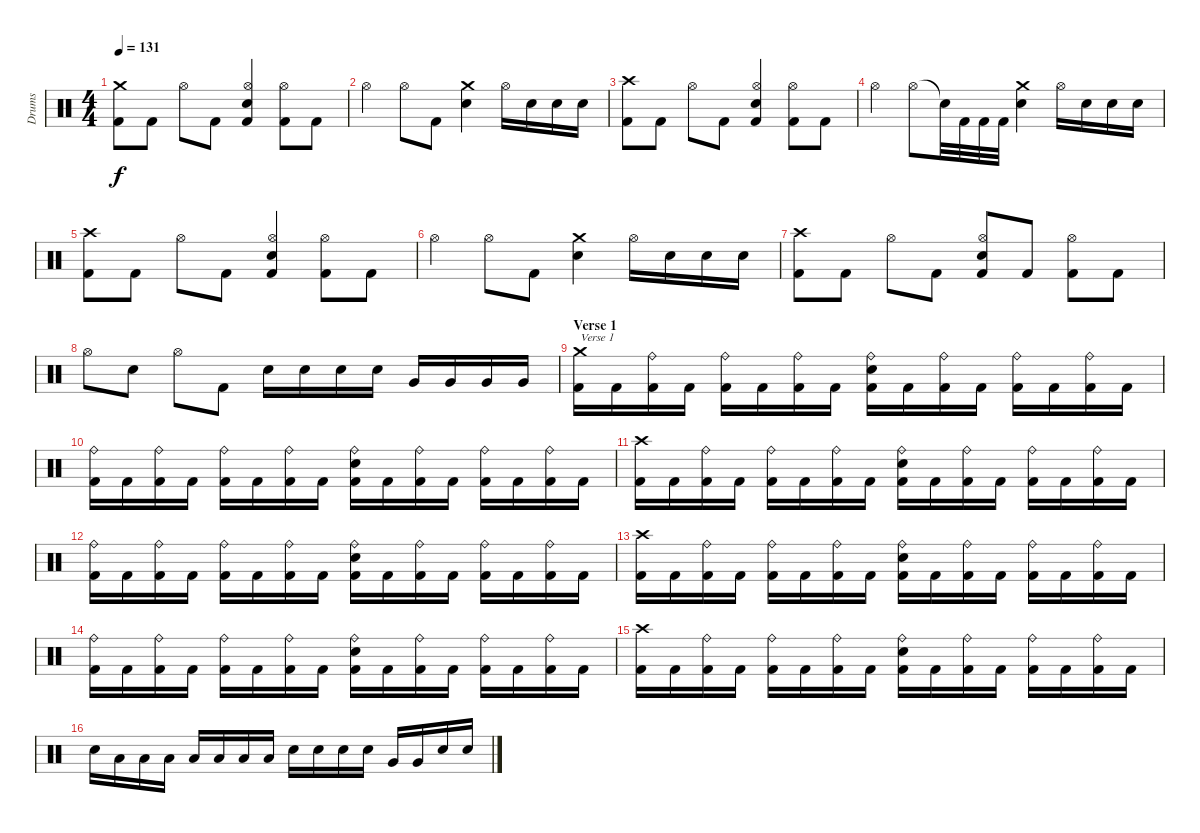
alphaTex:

\track ("Drums" "Drums") {instrument percussion}
\staff {score}
\articulation defaults
\ts (4 4)
\tempo 131
\clef neutral
\ks c
("Crash medium (hit)" "Kick (hit) 2").8{dy f} "Kick (hit) 2".8 "Hi-Hat (open)".8 "Kick (hit) 2".8 ("Hi-Hat (open)" "Electric Snare (hit)" "Kick (hit) 2").4 ("Hi-Hat (open)" "Kick (hit) 2").8 "Kick (hit) 2".8 |
"Hi-Hat (open)".4 "Hi-Hat (open)".8 "Kick (hit) 2".8 ("Crash medium (hit)" "Electric Snare (hit)").4 "Hi-Hat (open)".16 "Electric Snare (hit)".16 "Electric Snare (hit)".16 "Electric Snare (hit)".16 |
("Crash high (hit)" "Kick (hit) 2").8 "Kick (hit) 2".8 "Hi-Hat (open)".8 "Kick (hit) 2".8 ("Hi-Hat (open)" "Electric Snare (hit)" "Kick (hit) 2").4 ("Hi-Hat (open)" "Kick (hit) 2").8 "Kick (hit) 2".8 |
"Hi-Hat (open)".4 "Hi-Hat (open)".8 "Snare (hit)"{t}.32 "Kick (hit) 2".32 "Kick (hit) 2".32 "Kick (hit) 2".32 ("Crash medium (hit)" "Electric Snare (hit)").4 "Hi-Hat (open)".16 "Electric Snare (hit)".16 "Electric Snare (hit)".16 "Electric Snare (hit)".16 |
("Crash high (hit)" "Kick (hit) 2").8 "Kick (hit) 2".8 "Hi-Hat (open)".8 "Kick (hit) 2".8 ("Hi-Hat (open)" "Electric Snare (hit)" "Kick (hit) 2").4 ("Hi-Hat (open)" "Kick (hit) 2").8 "Kick (hit) 2".8 |
"Hi-Hat (open)".4 "Hi-Hat (open)".8 "Kick (hit) 2".8 ("Crash medium (hit)" "Electric Snare (hit)").4 "Hi-Hat (open)".16 "Electric Snare (hit)".16 "Electric Snare (hit)".16 "Electric Snare (hit)".16 |
("Crash high (hit)" "Kick (hit) 2").8 "Kick (hit) 2".8 "Hi-Hat (open)".8 "Kick (hit) 2".8 ("Hi-Hat (open)" "Electric Snare (hit)" "Kick (hit) 2").8 "Kick (hit) 2".8 ("Hi-Hat (open)" "Kick (hit) 2").8 "Kick (hit) 2".8 |
"Hi-Hat (open)".8 "Electric Snare (hit)".8 "Hi-Hat (open)".8 "Kick (hit) 2".8 "Electric Snare (hit)".16 "Electric Snare (hit)".16 "Electric Snare (hit)".16 "Electric Snare (hit)".16 "Very Low Tom (hit)".16 "Very Low Tom (hit)".16 "Very Low Tom (hit)".16 "Very Low Tom (hit)".16 |
\section ("" "Verse 1")
("Crash medium (hit)" "Kick (hit) 2").16{txt "Verse 1"} "Kick (hit) 2".16 ("Ride (bell)" "Kick (hit) 2").16 "Kick (hit) 2".16 ("Ride (bell)" "Kick (hit) 2").16 "Kick (hit) 2".16 ("Ride (bell)" "Kick (hit) 2").16 "Kick (hit) 2".16 ("Ride (bell)" "Electric Snare (hit)" "Kick (hit) 2").16 "Kick (hit) 2".16 ("Ride (bell)" "Kick (hit) 2").16 "Kick (hit) 2".16 ("Ride (bell)" "Kick (hit) 2").16 "Kick (hit) 2".16 ("Ride (bell)" "Kick (hit) 2").16 "Kick (hit) 2".16 |
("Ride (bell)" "Kick (hit) 2").16 "Kick (hit) 2".16 ("Ride (bell)" "Kick (hit) 2").16 "Kick (hit) 2".16 ("Ride (bell)" "Kick (hit) 2").16 "Kick (hit) 2".16 ("Ride (bell)" "Kick (hit) 2").16 "Kick (hit) 2".16 ("Ride (bell)" "Electric Snare (hit)" "Kick (hit) 2").16 "Kick (hit) 2".16 ("Ride (bell)" "Kick (hit) 2").16 "Kick (hit) 2".16 ("Ride (bell)" "Kick (hit) 2").16 "Kick (hit) 2".16 ("Ride (bell)" "Kick (hit) 2").16 "Kick (hit) 2".16 |
("Crash high (hit)" "Kick (hit) 2").16 "Kick (hit) 2".16 ("Ride (bell)" "Kick (hit) 2").16 "Kick (hit) 2".16 ("Ride (bell)" "Kick (hit) 2").16 "Kick (hit) 2".16 ("Ride (bell)" "Kick (hit) 2").16 "Kick (hit) 2".16 ("Ride (bell)" "Electric Snare (hit)" "Kick (hit) 2").16 "Kick (hit) 2".16 ("Ride (bell)" "Kick (hit) 2").16 "Kick (hit) 2".16 ("Ride (bell)" "Kick (hit) 2").16 "Kick (hit) 2".16 ("Ride (bell)" "Kick (hit) 2").16 "Kick (hit) 2".16 |
("Ride (bell)" "Kick (hit) 2").16 "Kick (hit) 2".16 ("Ride (bell)" "Kick (hit) 2").16 "Kick (hit) 2".16 ("Ride (bell)" "Kick (hit) 2").16 "Kick (hit) 2".16 ("Ride (bell)" "Kick (hit) 2").16 "Kick (hit) 2".16 ("Ride (bell)" "Electric Snare (hit)" "Kick (hit) 2").16 "Kick (hit) 2".16 ("Ride (bell)" "Kick (hit) 2").16 "Kick (hit) 2".16 ("Ride (bell)" "Kick (hit) 2").16 "Kick (hit) 2".16 ("Ride (bell)" "Kick (hit) 2").16 "Kick (hit) 2".16 |
("Crash high (hit)" "Kick (hit) 2").16 "Kick (hit) 2".16 ("Ride (bell)" "Kick (hit) 2").16 "Kick (hit) 2".16 ("Ride (bell)" "Kick (hit) 2").16 "Kick (hit) 2".16 ("Ride (bell)" "Kick (hit) 2").16 "Kick (hit) 2".16 ("Ride (bell)" "Electric Snare (hit)" "Kick (hit) 2").16 "Kick (hit) 2".16 ("Ride (bell)" "Kick (hit) 2").16 "Kick (hit) 2".16 ("Ride (bell)" "Kick (hit) 2").16 "Kick (hit) 2".16 ("Ride (bell)" "Kick (hit) 2").16 "Kick (hit) 2".16 |
("Ride (bell)" "Kick (hit) 2").16 "Kick (hit) 2".16 ("Ride (bell)" "Kick (hit) 2").16 "Kick (hit) 2".16 ("Ride (bell)" "Kick (hit) 2").16 "Kick (hit) 2".16 ("Ride (bell)" "Kick (hit) 2").16 "Kick (hit) 2".16 ("Ride (bell)" "Electric Snare (hit)" "Kick (hit) 2").16 "Kick (hit) 2".16 ("Ride (bell)" "Kick (hit) 2").16 "Kick (hit) 2".16 ("Ride (bell)" "Kick (hit) 2").16 "Kick (hit) 2".16 ("Ride (bell)" "Kick (hit) 2").16 "Kick (hit) 2".16 |
("Crash high (hit)" "Kick (hit) 2").16 "Kick (hit) 2".16 ("Ride (bell)" "Kick (hit) 2").16 "Kick (hit) 2".16 ("Ride (bell)" "Kick (hit) 2").16 "Kick (hit) 2".16 ("Ride (bell)" "Kick (hit) 2").16 "Kick (hit) 2".16 ("Ride (bell)" "Electric Snare (hit)" "Kick (hit) 2").16 "Kick (hit) 2".16 ("Ride (bell)" "Kick (hit) 2").16 "Kick (hit) 2".16 ("Ride (bell)" "Kick (hit) 2").16 "Kick (hit) 2".16 ("Ride (bell)" "Kick (hit) 2").16 "Kick (hit) 2".16 |
"Electric Snare (hit)".16 "Low Floor Tom (hit)".16 "Low Floor Tom (hit)".16 "Low Floor Tom (hit)".16 "Low Floor Tom (hit)".16 "Low Floor Tom (hit)".16 "Low Floor Tom (hit)".16 "Low Floor Tom (hit)".16 "Electric Snare (hit)".16 "Electric Snare (hit)".16 "Electric Snare (hit)".16 "Electric Snare (hit)".16 "Very Low Tom (hit)".16 "Very Low Tom (hit)".16 "Electric Snare (hit)".16 "Electric Snare (hit)".16
